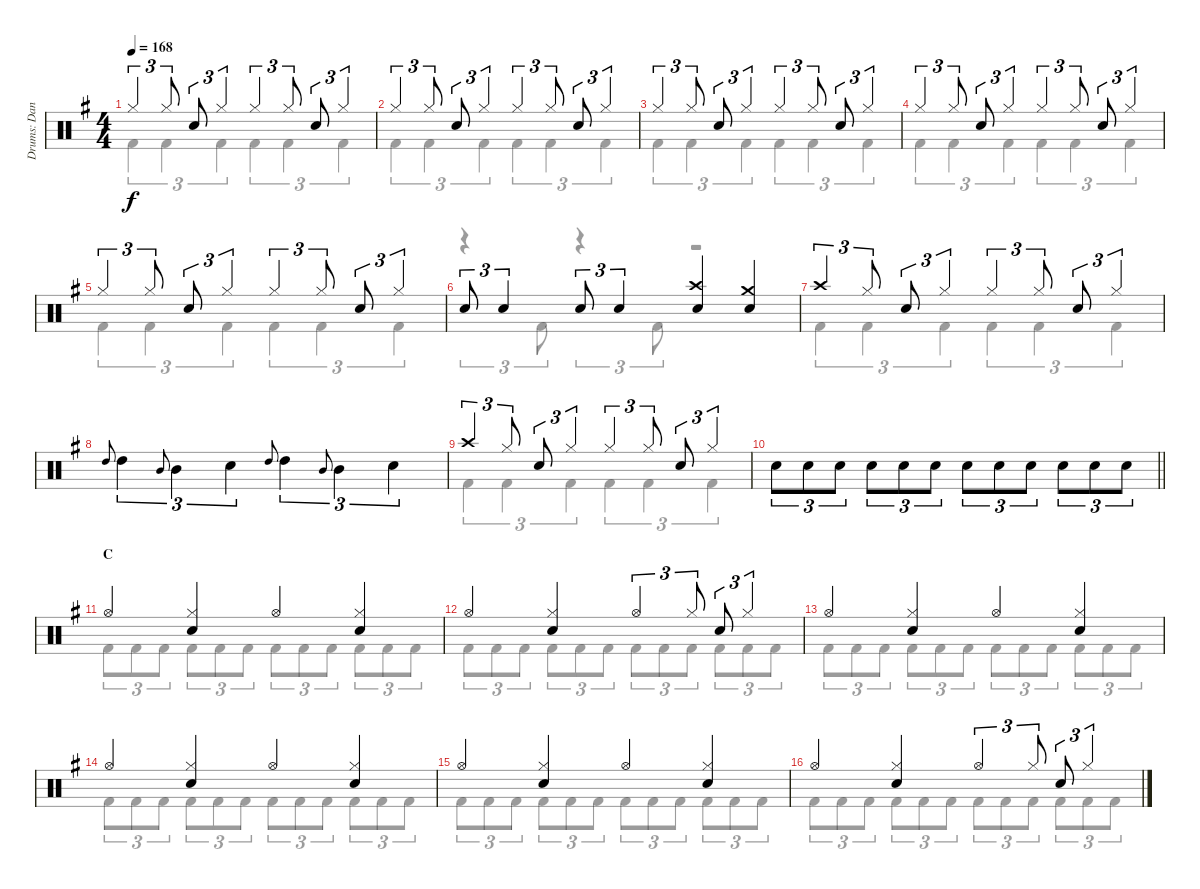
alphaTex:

\track ("Drums: Dana" "Drums: Dan") {instrument percussion}
\staff {score}
\articulation defaults
\voice
\ts (4 4)
\tempo 168
\clef neutral
\ks g "Hi-Hat (closed)".4{tu (3 2) dy f} "Hi-Hat (closed)".8{tu (3 2)} "Snare (hit) 2".8{tu (3 2)} "Hi-Hat (closed)".4{tu (3 2)} "Hi-Hat (closed)".4{tu (3 2)} "Hi-Hat (closed)".8{tu (3 2)} "Snare (hit) 2".8{tu (3 2)} "Hi-Hat (closed)".4{tu (3 2)}
|
"Hi-Hat (closed)".4{tu (3 2)} "Hi-Hat (closed)".8{tu (3 2)} "Snare (hit) 2".8{tu (3 2)} "Hi-Hat (closed)".4{tu (3 2)} "Hi-Hat (closed)".4{tu (3 2)} "Hi-Hat (closed)".8{tu (3 2)} "Snare (hit) 2".8{tu (3 2)} "Hi-Hat (closed)".4{tu (3 2)} |
"Hi-Hat (closed)".4{tu (3 2)} "Hi-Hat (closed)".8{tu (3 2)} "Snare (hit) 2".8{tu (3 2)} "Hi-Hat (closed)".4{tu (3 2)} "Hi-Hat (closed)".4{tu (3 2)} "Hi-Hat (closed)".8{tu (3 2)} "Snare (hit) 2".8{tu (3 2)} "Hi-Hat (closed)".4{tu (3 2)} |
"Hi-Hat (closed)".4{tu (3 2)} "Hi-Hat (closed)".8{tu (3 2)} "Snare (hit) 2".8{tu (3 2)} "Hi-Hat (closed)".4{tu (3 2)} "Hi-Hat (closed)".4{tu (3 2)} "Hi-Hat (closed)".8{tu (3 2)} "Snare (hit) 2".8{tu (3 2)} "Hi-Hat (closed)".4{tu (3 2)} |
"Hi-Hat (closed)".4{tu (3 2)} "Hi-Hat (closed)".8{tu (3 2)} "Snare (hit) 2".8{tu (3 2)} "Hi-Hat (closed)".4{tu (3 2)} "Hi-Hat (closed)".4{tu (3 2)} "Hi-Hat (closed)".8{tu (3 2)} "Snare (hit) 2".8{tu (3 2)} "Hi-Hat (closed)".4{tu (3 2)} |
"Snare (hit) 2".8{tu (3 2)} "Snare (hit) 2".4{tu (3 2)} "Snare (hit) 2".8{tu (3 2)} "Snare (hit) 2".4{tu (3 2)} ("Crash high (hit)" "Snare (hit) 2").4 ("Crash medium (hit)" "Snare (hit) 2").4 |
"Crash high (hit)".4{tu (3 2)} "Hi-Hat (closed)".8{tu (3 2)} "Snare (hit) 2".8{tu (3 2)} "Hi-Hat (closed)".4{tu (3 2)} "Hi-Hat (closed)".4{tu (3 2)} "Hi-Hat (closed)".8{tu (3 2)} "Snare (hit) 2".8{tu (3 2)} "Hi-Hat (closed)".4{tu (3 2)} |
"High Tom (hit)".8{gr onbeat} "High Tom (hit)".4{tu (3 2)} "Mid Tom (hit)".8{gr onbeat} "Mid Tom (hit)".4{tu (3 2)} "Snare (hit) 2".4{tu (3 2)} "High Tom (hit)".8{gr onbeat} "High Tom (hit)".4{tu (3 2)} "Mid Tom (hit)".8{gr onbeat} "Mid Tom (hit)".4{tu (3 2)} "Snare (hit) 2".4{tu (3 2)} |
"Crash high (hit)".4{tu (3 2)} "Hi-Hat (closed)".8{tu (3 2)} "Snare (hit) 2".8{tu (3 2)} "Hi-Hat (closed)".4{tu (3 2)} "Hi-Hat (closed)".4{tu (3 2)} "Hi-Hat (closed)".8{tu (3 2)} "Snare (hit) 2".8{tu (3 2)} "Hi-Hat (closed)".4{tu (3 2)} |
\barLineRight lightlight "Snare (hit) 2".8{tu (3 2)} "Snare (hit) 2".8{tu (3 2)} "Snare (hit) 2".8{tu (3 2)} "Snare (hit) 2".8{tu (3 2)} "Snare (hit) 2".8{tu (3 2)} "Snare (hit) 2".8{tu (3 2)} "Snare (hit) 2".8{tu (3 2)} "Snare (hit) 2".8{tu (3 2)} "Snare (hit) 2".8{tu (3 2)} "Snare (hit) 2".8{tu (3 2)} "Snare (hit) 2".8{tu (3 2)} "Snare (hit) 2".8{tu (3 2)}
|
\section ("" "C")
"Hi-Hat (open)".4 ("Hi-Hat (closed)" "Snare (hit) 2").4 "Hi-Hat (open)".4 ("Hi-Hat (closed)" "Snare (hit) 2").4 |
"Hi-Hat (open)".4 ("Hi-Hat (closed)" "Snare (hit) 2").4 "Hi-Hat (open)".4{tu (3 2)} "Hi-Hat (closed)".8{tu (3 2)} "Snare (hit) 2".8{tu (3 2)} "Hi-Hat (closed)".4{tu (3 2)} |
"Hi-Hat (open)".4 ("Hi-Hat (closed)" "Snare (hit) 2").4 "Hi-Hat (open)".4 ("Hi-Hat (closed)" "Snare (hit) 2").4 |
"Hi-Hat (open)".4 ("Hi-Hat (closed)" "Snare (hit) 2").4 "Hi-Hat (open)".4 ("Hi-Hat (closed)" "Snare (hit) 2").4 |
"Hi-Hat (open)".4 ("Hi-Hat (closed)" "Snare (hit) 2").4 "Hi-Hat (open)".4 ("Hi-Hat (closed)" "Snare (hit) 2").4 |
"Hi-Hat (open)".4 ("Hi-Hat (closed)" "Snare (hit) 2").4 "Hi-Hat (open)".4{tu (3 2)} "Hi-Hat (closed)".8{tu (3 2)} "Snare (hit) 2".8{tu (3 2)} "Hi-Hat (closed)".4{tu (3 2)}
\voice
\clef neutral
\ottava regular
\simile none
\ks g "Kick (hit) 2".4{tu (3 2) dy f} "Kick (hit) 2".4{tu (3 2)} "Kick (hit) 2".4{tu (3 2)} "Kick (hit) 2".4{tu (3 2)} "Kick (hit) 2".4{tu (3 2)} "Kick (hit) 2".4{tu (3 2)}
|
"Kick (hit) 2".4{tu (3 2)} "Kick (hit) 2".4{tu (3 2)} "Kick (hit) 2".4{tu (3 2)} "Kick (hit) 2".4{tu (3 2)} "Kick (hit) 2".4{tu (3 2)} "Kick (hit) 2".4{tu (3 2)} |
"Kick (hit) 2".4{tu (3 2)} "Kick (hit) 2".4{tu (3 2)} "Kick (hit) 2".4{tu (3 2)} "Kick (hit) 2".4{tu (3 2)} "Kick (hit) 2".4{tu (3 2)} "Kick (hit) 2".4{tu (3 2)} |
"Kick (hit) 2".4{tu (3 2)} "Kick (hit) 2".4{tu (3 2)} "Kick (hit) 2".4{tu (3 2)} "Kick (hit) 2".4{tu (3 2)} "Kick (hit) 2".4{tu (3 2)} "Kick (hit) 2".4{tu (3 2)} |
"Kick (hit) 2".4{tu (3 2)} "Kick (hit) 2".4{tu (3 2)} "Kick (hit) 2".4{tu (3 2)} "Kick (hit) 2".4{tu (3 2)} "Kick (hit) 2".4{tu (3 2)} "Kick (hit) 2".4{tu (3 2)} |
r.4{tu (3 2)} "Kick (hit) 2".8{tu (3 2)} r.4{tu (3 2)} "Kick (hit) 2".8{tu (3 2)} r.2 |
"Kick (hit) 2".4{tu (3 2)} "Kick (hit) 2".4{tu (3 2)} "Kick (hit) 2".4{tu (3 2)} "Kick (hit) 2".4{tu (3 2)} "Kick (hit) 2".4{tu (3 2)} "Kick (hit) 2".4{tu (3 2)} |
|
"Kick (hit) 2".4{tu (3 2)} "Kick (hit) 2".4{tu (3 2)} "Kick (hit) 2".4{tu (3 2)} "Kick (hit) 2".4{tu (3 2)} "Kick (hit) 2".4{tu (3 2)} "Kick (hit) 2".4{tu (3 2)} |
\barLineRight lightlight
|
"Kick (hit) 2".8{tu (3 2)} "Kick (hit) 2".8{tu (3 2)} "Kick (hit) 2".8{tu (3 2)} "Kick (hit) 2".8{tu (3 2)} "Kick (hit) 2".8{tu (3 2)} "Kick (hit) 2".8{tu (3 2)} "Kick (hit) 2".8{tu (3 2)} "Kick (hit) 2".8{tu (3 2)} "Kick (hit) 2".8{tu (3 2)} "Kick (hit) 2".8{tu (3 2)} "Kick (hit) 2".8{tu (3 2)} "Kick (hit) 2".8{tu (3 2)} |
"Kick (hit) 2".8{tu (3 2)} "Kick (hit) 2".8{tu (3 2)} "Kick (hit) 2".8{tu (3 2)} "Kick (hit) 2".8{tu (3 2)} "Kick (hit) 2".8{tu (3 2)} "Kick (hit) 2".8{tu (3 2)} "Kick (hit) 2".8{tu (3 2)} "Kick (hit) 2".8{tu (3 2)} "Kick (hit) 2".8{tu (3 2)} "Kick (hit) 2".8{tu (3 2)} "Kick (hit) 2".8{tu (3 2)} "Kick (hit) 2".8{tu (3 2)} |
"Kick (hit) 2".8{tu (3 2)} "Kick (hit) 2".8{tu (3 2)} "Kick (hit) 2".8{tu (3 2)} "Kick (hit) 2".8{tu (3 2)} "Kick (hit) 2".8{tu (3 2)} "Kick (hit) 2".8{tu (3 2)} "Kick (hit) 2".8{tu (3 2)} "Kick (hit) 2".8{tu (3 2)} "Kick (hit) 2".8{tu (3 2)} "Kick (hit) 2".8{tu (3 2)} "Kick (hit) 2".8{tu (3 2)} "Kick (hit) 2".8{tu (3 2)} |
"Kick (hit) 2".8{tu (3 2)} "Kick (hit) 2".8{tu (3 2)} "Kick (hit) 2".8{tu (3 2)} "Kick (hit) 2".8{tu (3 2)} "Kick (hit) 2".8{tu (3 2)} "Kick (hit) 2".8{tu (3 2)} "Kick (hit) 2".8{tu (3 2)} "Kick (hit) 2".8{tu (3 2)} "Kick (hit) 2".8{tu (3 2)} "Kick (hit) 2".8{tu (3 2)} "Kick (hit) 2".8{tu (3 2)} "Kick (hit) 2".8{tu (3 2)} |
"Kick (hit) 2".8{tu (3 2)} "Kick (hit) 2".8{tu (3 2)} "Kick (hit) 2".8{tu (3 2)} "Kick (hit) 2".8{tu (3 2)} "Kick (hit) 2".8{tu (3 2)} "Kick (hit) 2".8{tu (3 2)} "Kick (hit) 2".8{tu (3 2)} "Kick (hit) 2".8{tu (3 2)} "Kick (hit) 2".8{tu (3 2)} "Kick (hit) 2".8{tu (3 2)} "Kick (hit) 2".8{tu (3 2)} "Kick (hit) 2".8{tu (3 2)} |
"Kick (hit) 2".8{tu (3 2)} "Kick (hit) 2".8{tu (3 2)} "Kick (hit) 2".8{tu (3 2)} "Kick (hit) 2".8{tu (3 2)} "Kick (hit) 2".8{tu (3 2)} "Kick (hit) 2".8{tu (3 2)} "Kick (hit) 2".8{tu (3 2)} "Kick (hit) 2".8{tu (3 2)} "Kick (hit) 2".8{tu (3 2)} "Kick (hit) 2".8{tu (3 2)} "Kick (hit) 2".8{tu (3 2)} "Kick (hit) 2".8{tu (3 2)}
